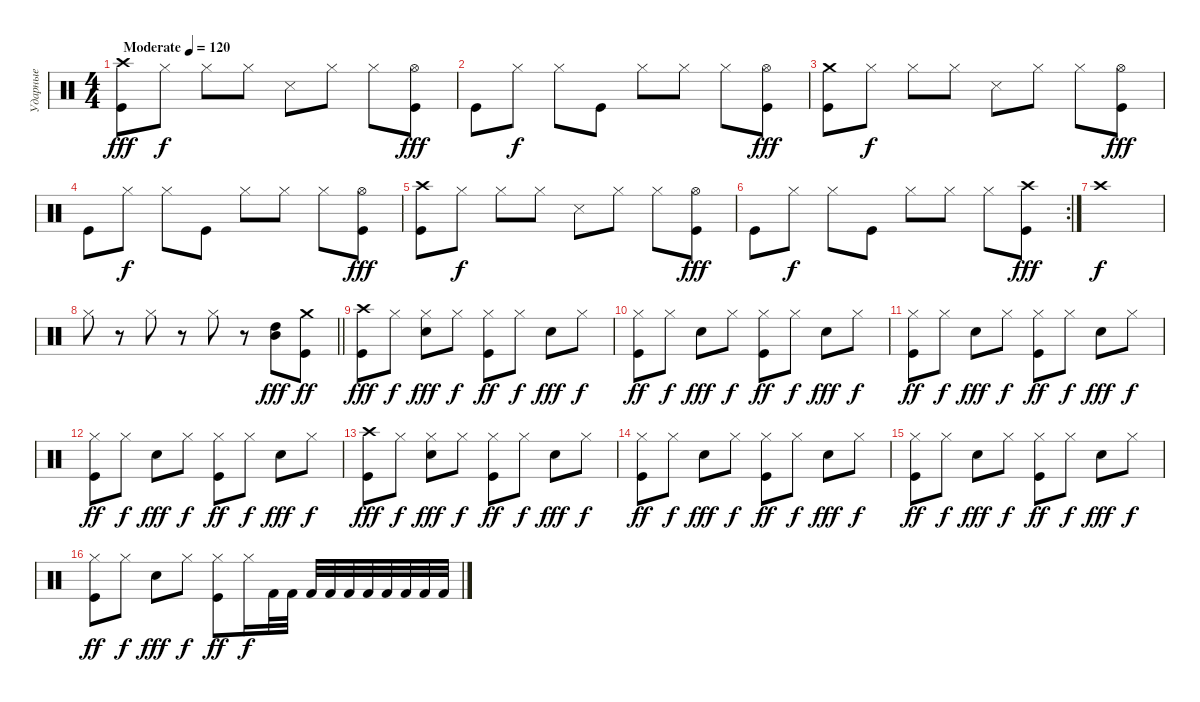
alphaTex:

\track ("Ударные" "Ударные") {instrument percussion}
\staff {score}
\articulation defaults
\ts (4 4)
\tempo (120 "Moderate")
\clef neutral
\ks c
("Kick (hit)" "Crash high (hit)").8{dy fff} "Hi-Hat (closed)".8{dy f} "Hi-Hat (closed)".8 "Hi-Hat (closed)".8 "Snare (side stick) 3".8 "Hi-Hat (closed)".8 "Hi-Hat (closed)".8 ("Hi-Hat (open)" "Kick (hit)").8{dy fff} |
"Kick (hit)".8 "Hi-Hat (closed)".8{dy f} "Hi-Hat (closed)".8 "Kick (hit)".8 "Hi-Hat (closed)".8 "Hi-Hat (closed)".8 "Hi-Hat (closed)".8 ("Kick (hit)" "Hi-Hat (open)").8{dy fff} |
("Kick (hit)" "Crash medium (hit)").8 "Hi-Hat (closed)".8{dy f} "Hi-Hat (closed)".8 "Hi-Hat (closed)".8 "Snare (side stick) 3".8 "Hi-Hat (closed)".8 "Hi-Hat (closed)".8 ("Kick (hit)" "Hi-Hat (open)").8{dy fff} |
"Kick (hit)".8 "Hi-Hat (closed)".8{dy f} "Hi-Hat (closed)".8 "Kick (hit)".8 "Hi-Hat (closed)".8 "Hi-Hat (closed)".8 "Hi-Hat (closed)".8 ("Kick (hit)" "Hi-Hat (open)").8{dy fff} |
("Kick (hit)" "Crash high (hit)").8 "Hi-Hat (closed)".8{dy f} "Hi-Hat (closed)".8 "Hi-Hat (closed)".8 "Snare (side stick) 3".8 "Hi-Hat (closed)".8 "Hi-Hat (closed)".8 ("Hi-Hat (open)" "Kick (hit)").8{dy fff} |
\rc 2 "Kick (hit)".8 "Hi-Hat (closed)".8{dy f} "Hi-Hat (closed)".8 "Kick (hit)".8 "Hi-Hat (closed)".8 "Hi-Hat (closed)".8 "Hi-Hat (closed)".8
("Kick (hit)" "Crash high (hit)").8{dy fff} |
"Crash high (hit)".1{dy f} |
\barLineRight lightlight "Hi-Hat (closed)".8
r.8 "Hi-Hat (closed)".8 r.8 "Hi-Hat (closed)".8 r.8 ("Mid Tom (hit)" "High Tom (hit)").8{dy fff} ("Crash medium (hit)" "Kick (hit)").8{dy ff} |
("Kick (hit)" "Crash high (hit)").8{dy fff} "Hi-Hat (closed)".8{dy f} ("Electric Snare (hit)" "Hi-Hat (closed)").8{dy fff} "Hi-Hat (closed)".8{dy f} ("Kick (hit)" "Hi-Hat (closed)").8{dy ff} "Hi-Hat (closed)".8{dy f} "Electric Snare (hit)".8{dy fff} "Hi-Hat (closed)".8{dy f} |
("Kick (hit)" "Hi-Hat (closed)").8{dy ff} "Hi-Hat (closed)".8{dy f} "Electric Snare (hit)".8{dy fff} "Hi-Hat (closed)".8{dy f} ("Kick (hit)" "Hi-Hat (closed)").8{dy ff} "Hi-Hat (closed)".8{dy f} "Electric Snare (hit)".8{dy fff} "Hi-Hat (closed)".8{dy f} |
("Kick (hit)" "Hi-Hat (closed)").8{dy ff} "Hi-Hat (closed)".8{dy f} "Electric Snare (hit)".8{dy fff} "Hi-Hat (closed)".8{dy f} ("Kick (hit)" "Hi-Hat (closed)").8{dy ff} "Hi-Hat (closed)".8{dy f} "Electric Snare (hit)".8{dy fff} "Hi-Hat (closed)".8{dy f} |
("Kick (hit)" "Hi-Hat (closed)").8{dy ff} "Hi-Hat (closed)".8{dy f} "Electric Snare (hit)".8{dy fff} "Hi-Hat (closed)".8{dy f} ("Kick (hit)" "Hi-Hat (closed)").8{dy ff} "Hi-Hat (closed)".8{dy f} "Electric Snare (hit)".8{dy fff} "Hi-Hat (closed)".8{dy f} |
("Kick (hit)" "Crash high (hit)").8{dy fff} "Hi-Hat (closed)".8{dy f} ("Electric Snare (hit)" "Hi-Hat (closed)").8{dy fff} "Hi-Hat (closed)".8{dy f} ("Kick (hit)" "Hi-Hat (closed)").8{dy ff} "Hi-Hat (closed)".8{dy f} "Electric Snare (hit)".8{dy fff} "Hi-Hat (closed)".8{dy f} |
("Kick (hit)" "Hi-Hat (closed)").8{dy ff} "Hi-Hat (closed)".8{dy f} "Electric Snare (hit)".8{dy fff} "Hi-Hat (closed)".8{dy f} ("Kick (hit)" "Hi-Hat (closed)").8{dy ff} "Hi-Hat (closed)".8{dy f} "Electric Snare (hit)".8{dy fff} "Hi-Hat (closed)".8{dy f} |
("Kick (hit)" "Hi-Hat (closed)").8{dy ff} "Hi-Hat (closed)".8{dy f} "Electric Snare (hit)".8{dy fff} "Hi-Hat (closed)".8{dy f} ("Kick (hit)" "Hi-Hat (closed)").8{dy ff} "Hi-Hat (closed)".8{dy f} "Electric Snare (hit)".8{dy fff} "Hi-Hat (closed)".8{dy f} |
("Kick (hit)" "Hi-Hat (closed)").8{dy ff} "Hi-Hat (closed)".8{dy f} "Electric Snare (hit)".8{dy fff} "Hi-Hat (closed)".8{dy f} ("Kick (hit)" "Hi-Hat (closed)").8{dy ff} "Hi-Hat (closed)".16{dy f} "Kick (hit) 2".32 "Kick (hit) 2".32 "Kick (hit) 2".32 "Kick (hit) 2".32 "Kick (hit) 2".32 "Kick (hit) 2".32 "Kick (hit) 2".32 "Kick (hit) 2".32 "Kick (hit) 2".32 "Kick (hit) 2".32
